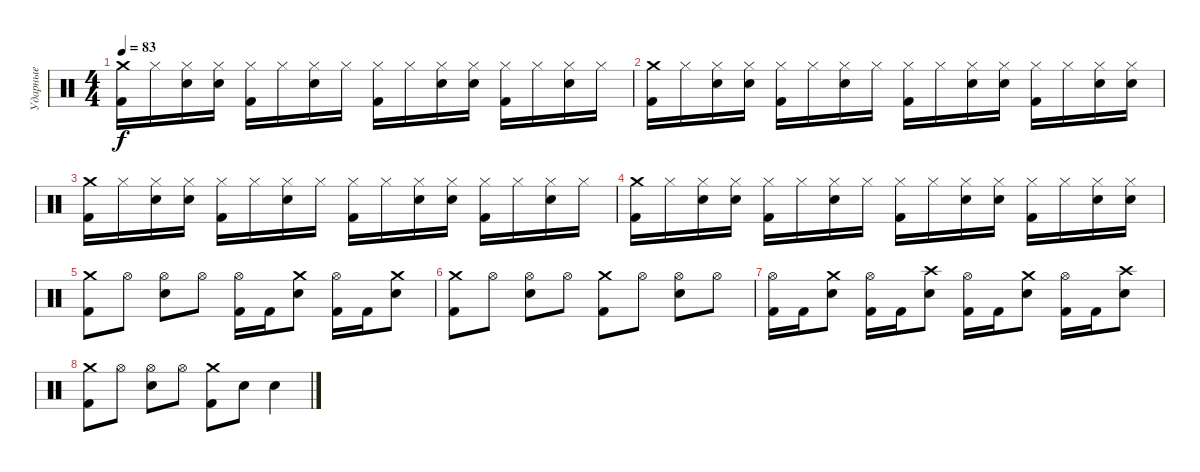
\track ("Ударные" "Ударные") {instrument percussion}
\staff {score}
\articulation defaults
\ts (4 4)
\tempo 83
\clef neutral
\ks c
("Crash medium (hit)" "Kick (hit) 2").16{dy f} "Hi-Hat (closed)".16 ("Hi-Hat (closed)" "Snare (hit) 2").16 ("Hi-Hat (closed)" "Snare (hit) 2").16 ("Hi-Hat (closed)" "Kick (hit) 2").16 "Hi-Hat (closed)".16 ("Hi-Hat (closed)" "Snare (hit) 2").16 "Hi-Hat (closed)".16 ("Hi-Hat (closed)" "Kick (hit) 2").16 "Hi-Hat (closed)".16 ("Hi-Hat (closed)" "Snare (hit) 2").16 ("Hi-Hat (closed)" "Snare (hit) 2").16 ("Hi-Hat (closed)" "Kick (hit) 2").16 "Hi-Hat (closed)".16 ("Hi-Hat (closed)" "Snare (hit) 2").16 "Hi-Hat (closed)".16 |
("Crash medium (hit)" "Kick (hit) 2").16 "Hi-Hat (closed)".16 ("Hi-Hat (closed)" "Snare (hit) 2").16 ("Hi-Hat (closed)" "Snare (hit) 2").16 ("Hi-Hat (closed)" "Kick (hit) 2").16 "Hi-Hat (closed)".16 ("Hi-Hat (closed)" "Snare (hit) 2").16 "Hi-Hat (closed)".16 ("Hi-Hat (closed)" "Kick (hit) 2").16 "Hi-Hat (closed)".16 ("Hi-Hat (closed)" "Snare (hit) 2").16 ("Hi-Hat (closed)" "Snare (hit) 2").16 ("Hi-Hat (closed)" "Kick (hit) 2").16 "Hi-Hat (closed)".16 ("Hi-Hat (closed)" "Snare (hit) 2").16 ("Hi-Hat (closed)" "Snare (hit) 2").16 |
("Crash medium (hit)" "Kick (hit) 2").16 "Hi-Hat (closed)".16 ("Hi-Hat (closed)" "Snare (hit) 2").16 ("Hi-Hat (closed)" "Snare (hit) 2").16 ("Hi-Hat (closed)" "Kick (hit) 2").16 "Hi-Hat (closed)".16 ("Hi-Hat (closed)" "Snare (hit) 2").16 "Hi-Hat (closed)".16 ("Hi-Hat (closed)" "Kick (hit) 2").16 "Hi-Hat (closed)".16 ("Hi-Hat (closed)" "Snare (hit) 2").16 ("Hi-Hat (closed)" "Snare (hit) 2").16 ("Hi-Hat (closed)" "Kick (hit) 2").16 "Hi-Hat (closed)".16 ("Hi-Hat (closed)" "Snare (hit) 2").16 "Hi-Hat (closed)".16 |
("Crash medium (hit)" "Kick (hit) 2").16 "Hi-Hat (closed)".16 ("Hi-Hat (closed)" "Snare (hit) 2").16 ("Hi-Hat (closed)" "Snare (hit) 2").16 ("Hi-Hat (closed)" "Kick (hit) 2").16 "Hi-Hat (closed)".16 ("Hi-Hat (closed)" "Snare (hit) 2").16 "Hi-Hat (closed)".16 ("Hi-Hat (closed)" "Kick (hit) 2").16 "Hi-Hat (closed)".16 ("Hi-Hat (closed)" "Snare (hit) 2").16 ("Hi-Hat (closed)" "Snare (hit) 2").16 ("Hi-Hat (closed)" "Kick (hit) 2").16 "Hi-Hat (closed)".16 ("Hi-Hat (closed)" "Snare (hit) 2").16 ("Hi-Hat (closed)" "Snare (hit) 2").16 |
("Crash medium (hit)" "Kick (hit) 2").8 "Hi-Hat (open)".8 ("Snare (hit) 2" "Hi-Hat (open)").8 "Hi-Hat (open)".8 ("Hi-Hat (open)" "Kick (hit) 2").16 "Kick (hit) 2".16 ("Crash medium (hit)" "Snare (hit) 2").8 ("Hi-Hat (open)" "Kick (hit) 2").16 "Kick (hit) 2".16 ("Crash medium (hit)" "Snare (hit) 2").8 |
("Crash medium (hit)" "Kick (hit) 2").8 "Hi-Hat (open)".8 ("Snare (hit) 2" "Hi-Hat (open)").8 "Hi-Hat (open)".8 ("Crash medium (hit)" "Kick (hit) 2").8 "Hi-Hat (open)".8 ("Snare (hit) 2" "Hi-Hat (open)").8 "Hi-Hat (open)".8 |
("Hi-Hat (open)" "Kick (hit) 2").16 "Kick (hit) 2".16 ("Crash medium (hit)" "Snare (hit) 2").8 ("Hi-Hat (open)" "Kick (hit) 2").16 "Kick (hit) 2".16 ("Crash high (hit)" "Snare (hit) 2").8 ("Hi-Hat (open)" "Kick (hit) 2").16 "Kick (hit) 2".16 ("Crash medium (hit)" "Snare (hit) 2").8 ("Hi-Hat (open)" "Kick (hit) 2").16 "Kick (hit) 2".16 ("Crash high (hit)" "Snare (hit) 2").8 |
("Crash medium (hit)" "Kick (hit) 2").8 "Hi-Hat (open)".8 ("Snare (hit) 2" "Hi-Hat (open)").8 "Hi-Hat (open)".8 ("Crash medium (hit)" "Kick (hit) 2").8 "Snare (hit) 2".8 "Snare (hit) 2".4
